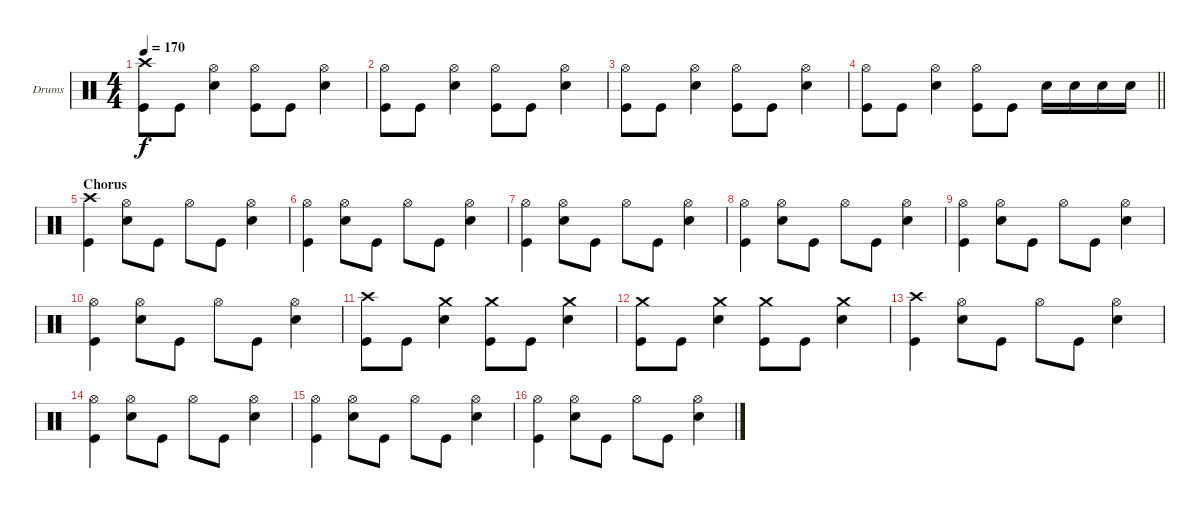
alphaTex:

\bracketExtendMode groupsimilarinstruments
\firstSystemTrackNameOrientation horizontal
\otherSystemsTrackNameOrientation horizontal
\track ("Drumkit" "Drums") {instrument percussion}
\staff {score}
\articulation defaults
\ts (4 4)
\tempo 170
\clef neutral
\ks c
("Crash high (hit)" "Kick (hit)").8{dy f} "Kick (hit)".8 ("Hi-Hat (open)" "Snare (hit) 2").4 ("Hi-Hat (open)" "Kick (hit)").8 "Kick (hit)".8 ("Hi-Hat (open)" "Snare (hit) 2").4 |
("Hi-Hat (open)" "Kick (hit)").8 "Kick (hit)".8 ("Hi-Hat (open)" "Snare (hit) 2").4 ("Hi-Hat (open)" "Kick (hit)").8 "Kick (hit)".8 ("Hi-Hat (open)" "Snare (hit) 2").4 |
("Hi-Hat (open)" "Kick (hit)").8 "Kick (hit)".8 ("Hi-Hat (open)" "Snare (hit) 2").4 ("Hi-Hat (open)" "Kick (hit)").8 "Kick (hit)".8 ("Hi-Hat (open)" "Snare (hit) 2").4 |
\barLineRight lightlight
("Hi-Hat (open)" "Kick (hit)").8 "Kick (hit)".8 ("Hi-Hat (open)" "Snare (hit) 2").4 ("Hi-Hat (open)" "Kick (hit)").8 "Kick (hit)".8 "Snare (hit) 2".16 "Snare (hit) 2".16 "Snare (hit) 2".16 "Snare (hit) 2".16 |
\section ("" "Chorus")
("Crash high (hit)" "Kick (hit)").4 ("Hi-Hat (open)" "Snare (hit) 2").8 "Kick (hit)".8 "Hi-Hat (open)".8 "Kick (hit)".8 ("Hi-Hat (open)" "Snare (hit) 2").4 |
("Hi-Hat (open)" "Kick (hit)").4 ("Hi-Hat (open)" "Snare (hit) 2").8 "Kick (hit)".8 "Hi-Hat (open)".8 "Kick (hit)".8 ("Hi-Hat (open)" "Snare (hit) 2").4 |
("Hi-Hat (open)" "Kick (hit)").4 ("Hi-Hat (open)" "Snare (hit) 2").8 "Kick (hit)".8 "Hi-Hat (open)".8 "Kick (hit)".8 ("Hi-Hat (open)" "Snare (hit) 2").4 |
("Hi-Hat (open)" "Kick (hit)").4 ("Hi-Hat (open)" "Snare (hit) 2").8 "Kick (hit)".8 "Hi-Hat (open)".8 "Kick (hit)".8 ("Hi-Hat (open)" "Snare (hit) 2").4 |
("Hi-Hat (open)" "Kick (hit)").4 ("Hi-Hat (open)" "Snare (hit) 2").8 "Kick (hit)".8 "Hi-Hat (open)".8 "Kick (hit)".8 ("Hi-Hat (open)" "Snare (hit) 2").4 |
("Hi-Hat (open)" "Kick (hit)").4 ("Hi-Hat (open)" "Snare (hit) 2").8 "Kick (hit)".8 "Hi-Hat (open)".8 "Kick (hit)".8 ("Hi-Hat (open)" "Snare (hit) 2").4 |
("Crash high (hit)" "Kick (hit)").8 "Kick (hit)".8 ("Crash medium (hit)" "Snare (hit) 2").4 ("Crash medium (hit)" "Kick (hit)").8 "Kick (hit)".8 ("Crash medium (hit)" "Snare (hit) 2").4 |
("Crash medium (hit)" "Kick (hit)").8 "Kick (hit)".8 ("Crash medium (hit)" "Snare (hit) 2").4 ("Crash medium (hit)" "Kick (hit)").8 "Kick (hit)".8 ("Crash medium (hit)" "Snare (hit) 2").4 |
("Crash high (hit)" "Kick (hit)").4 ("Hi-Hat (open)" "Snare (hit) 2").8 "Kick (hit)".8 "Hi-Hat (open)".8 "Kick (hit)".8 ("Hi-Hat (open)" "Snare (hit) 2").4 |
("Hi-Hat (open)" "Kick (hit)").4 ("Hi-Hat (open)" "Snare (hit) 2").8 "Kick (hit)".8 "Hi-Hat (open)".8 "Kick (hit)".8 ("Hi-Hat (open)" "Snare (hit) 2").4 |
("Hi-Hat (open)" "Kick (hit)").4 ("Hi-Hat (open)" "Snare (hit) 2").8 "Kick (hit)".8 "Hi-Hat (open)".8 "Kick (hit)".8 ("Hi-Hat (open)" "Snare (hit) 2").4 |
("Hi-Hat (open)" "Kick (hit)").4 ("Hi-Hat (open)" "Snare (hit) 2").8 "Kick (hit)".8 "Hi-Hat (open)".8 "Kick (hit)".8 ("Hi-Hat (open)" "Snare (hit) 2").4
